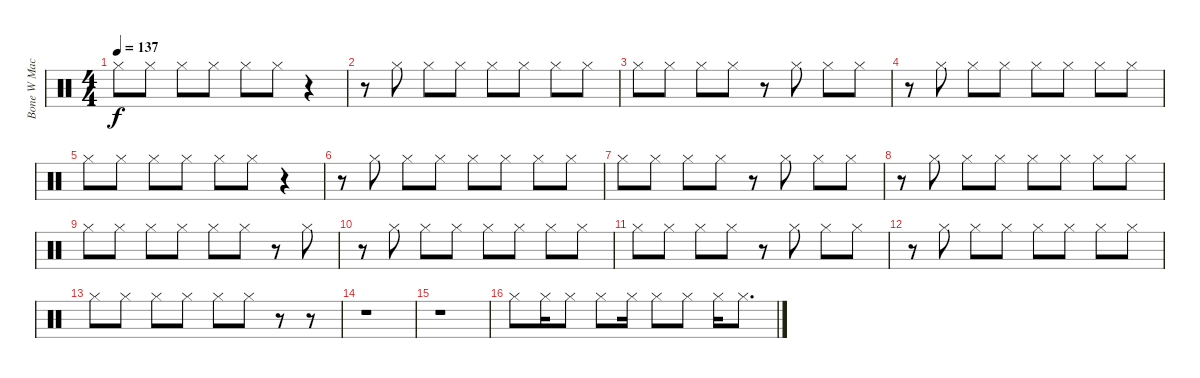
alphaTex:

\track ("Bone W Machine Cimbals" "Bone W Mac") {instrument percussion}
\staff {score}
\articulation defaults
\ts (4 4)
\tempo 137
\clef neutral
\ks c "Hi-Hat (closed)".8{dy f} "Hi-Hat (closed)".8 "Hi-Hat (closed)".8 "Hi-Hat (closed)".8 "Hi-Hat (closed)".8 "Hi-Hat (closed)".8
r.4 |
r.8 "Hi-Hat (closed)".8 "Hi-Hat (closed)".8 "Hi-Hat (closed)".8 "Hi-Hat (closed)".8 "Hi-Hat (closed)".8 "Hi-Hat (closed)".8 "Hi-Hat (closed)".8 |
"Hi-Hat (closed)".8 "Hi-Hat (closed)".8 "Hi-Hat (closed)".8 "Hi-Hat (closed)".8 r.8 "Hi-Hat (closed)".8 "Hi-Hat (closed)".8 "Hi-Hat (closed)".8 |
r.8 "Hi-Hat (closed)".8 "Hi-Hat (closed)".8 "Hi-Hat (closed)".8 "Hi-Hat (closed)".8 "Hi-Hat (closed)".8 "Hi-Hat (closed)".8 "Hi-Hat (closed)".8 |
"Hi-Hat (closed)".8 "Hi-Hat (closed)".8 "Hi-Hat (closed)".8 "Hi-Hat (closed)".8 "Hi-Hat (closed)".8 "Hi-Hat (closed)".8 r.4 |
r.8 "Hi-Hat (closed)".8 "Hi-Hat (closed)".8 "Hi-Hat (closed)".8 "Hi-Hat (closed)".8 "Hi-Hat (closed)".8 "Hi-Hat (closed)".8 "Hi-Hat (closed)".8 |
"Hi-Hat (closed)".8 "Hi-Hat (closed)".8 "Hi-Hat (closed)".8 "Hi-Hat (closed)".8 r.8 "Hi-Hat (closed)".8 "Hi-Hat (closed)".8 "Hi-Hat (closed)".8 |
r.8 "Hi-Hat (closed)".8 "Hi-Hat (closed)".8 "Hi-Hat (closed)".8 "Hi-Hat (closed)".8 "Hi-Hat (closed)".8 "Hi-Hat (closed)".8 "Hi-Hat (closed)".8 |
"Hi-Hat (closed)".8 "Hi-Hat (closed)".8 "Hi-Hat (closed)".8 "Hi-Hat (closed)".8 "Hi-Hat (closed)".8 "Hi-Hat (closed)".8 r.8 "Hi-Hat (closed)".8 |
r.8 "Hi-Hat (closed)".8 "Hi-Hat (closed)".8 "Hi-Hat (closed)".8 "Hi-Hat (closed)".8 "Hi-Hat (closed)".8 "Hi-Hat (closed)".8 "Hi-Hat (closed)".8 |
"Hi-Hat (closed)".8 "Hi-Hat (closed)".8 "Hi-Hat (closed)".8 "Hi-Hat (closed)".8 r.8 "Hi-Hat (closed)".8 "Hi-Hat (closed)".8 "Hi-Hat (closed)".8 |
r.8 "Hi-Hat (closed)".8 "Hi-Hat (closed)".8 "Hi-Hat (closed)".8 "Hi-Hat (closed)".8 "Hi-Hat (closed)".8 "Hi-Hat (closed)".8 "Hi-Hat (closed)".8 |
"Hi-Hat (closed)".8 "Hi-Hat (closed)".8 "Hi-Hat (closed)".8 "Hi-Hat (closed)".8 "Hi-Hat (closed)".8 "Hi-Hat (closed)".8 r.8 r.8 |
r.1 |
r.1 |
"Hi-Hat (closed)".8 "Hi-Hat (closed)".16 "Hi-Hat (closed)".8 "Hi-Hat (closed)".8 "Hi-Hat (closed)".16 "Hi-Hat (closed)".8 "Hi-Hat (closed)".8 "Hi-Hat (closed)".16 "Hi-Hat (closed)".8{d}
